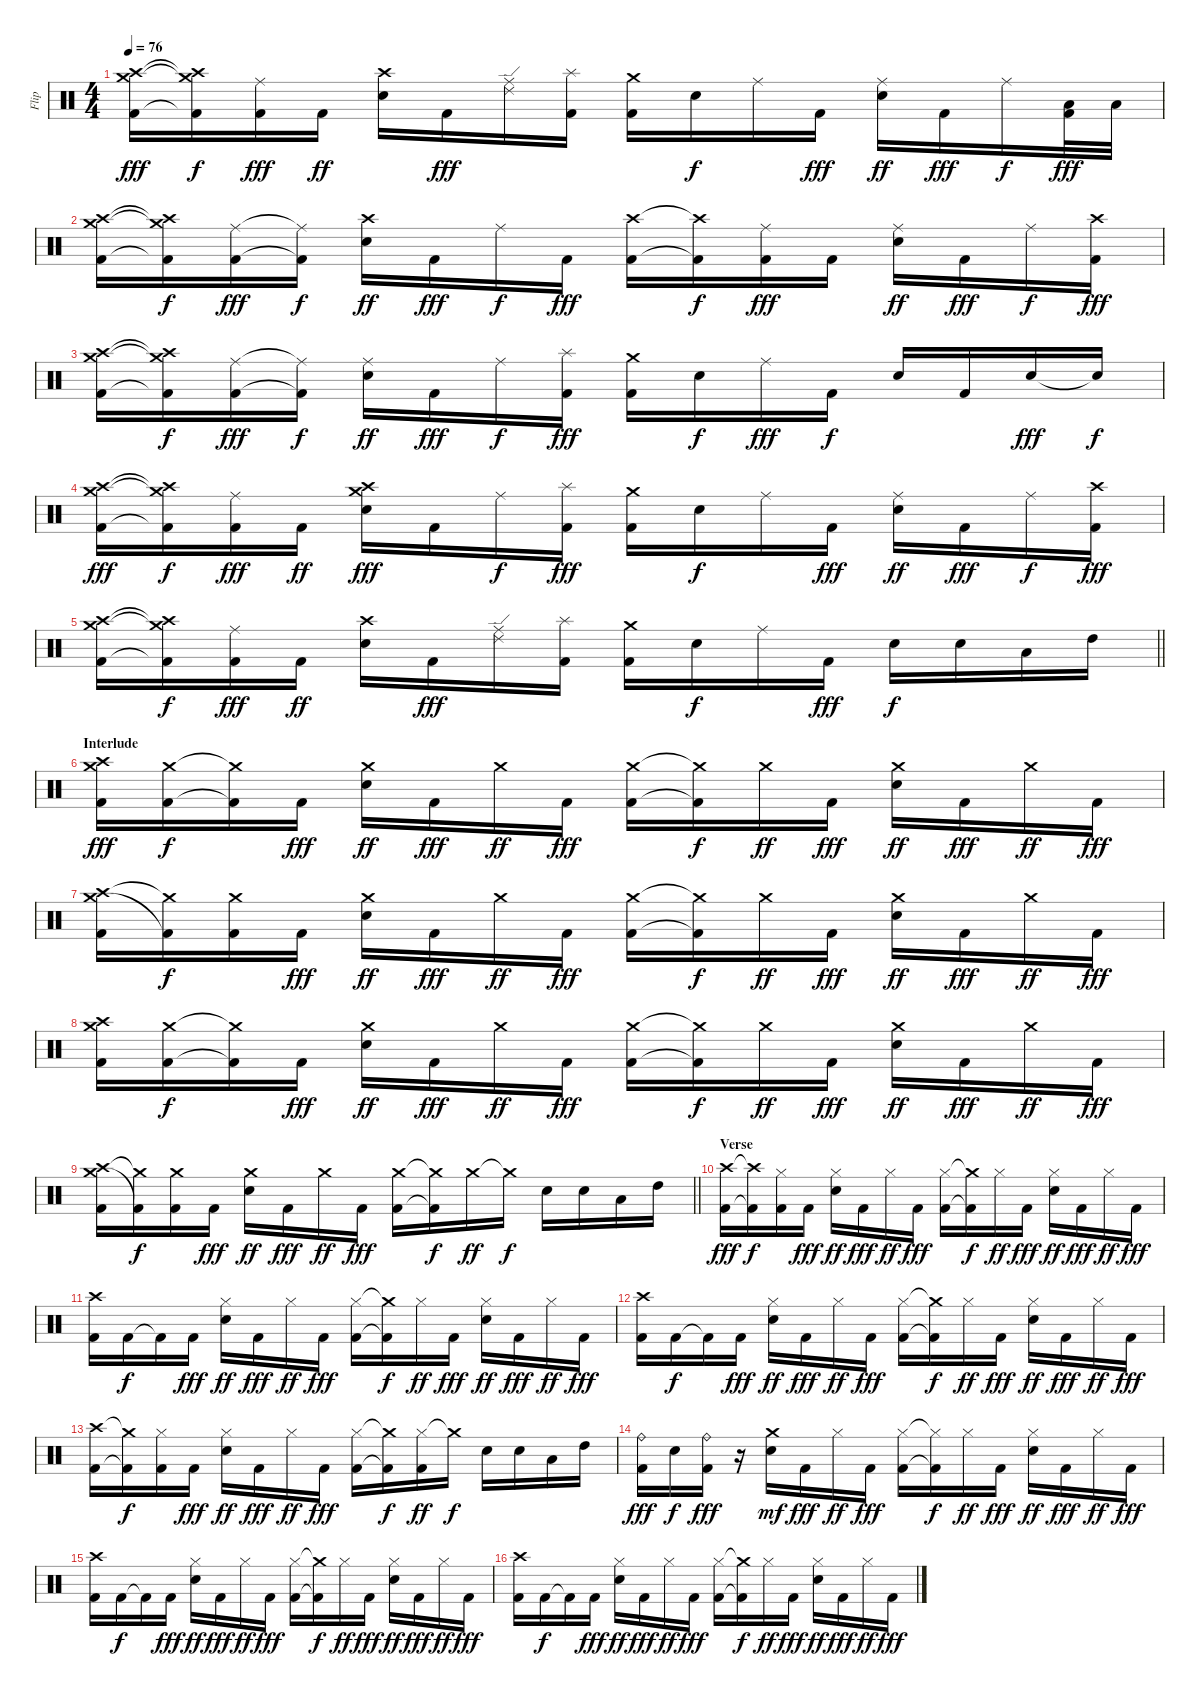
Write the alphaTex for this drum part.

\track ("Flip" "Flip") {instrument percussion}
\staff {score}
\articulation defaults
\ts (4 4)
\tempo 76
\clef neutral
\ks c
("Crash medium (hit)" "Crash high (hit)" "Kick (hit) 2").16{dy fff} ("Crash medium (hit)"{t} "Crash high (hit)"{t} "Kick (hit) 2"{t}).16{dy f} ("Ride (middle)" "Kick (hit) 2").16{dy fff} "Kick (hit) 2".16{dy ff} ("Crash high (hit)" "Snare (hit) 2").16 "Kick (hit) 2".16{dy fff} ("Ride (middle)" "Ride (edge) 2").16 ("Splash (hit)" "Kick (hit) 2").16 ("Crash medium (hit)" "Kick (hit) 2").16 "Snare (hit) 2".16{dy f} "Ride (middle)".16 "Kick (hit) 2".16{dy fff} ("Ride (middle)" "Snare (hit) 2").16{dy ff} "Kick (hit) 2".16{dy fff} "Ride (middle)".16{dy f} ("Low Tom (hit)" "Kick (hit) 2").32{dy fff} "Low Tom (hit)".32 |
("Crash medium (hit)" "Crash high (hit)" "Kick (hit) 2").16 ("Crash medium (hit)"{t} "Crash high (hit)"{t} "Kick (hit) 2"{t}).16{dy f} ("Ride (middle)" "Kick (hit) 2").16{dy fff} ("Ride (middle)"{t} "Kick (hit) 2"{t}).16{dy f} ("Crash high (hit)" "Snare (hit) 2").16{dy ff} "Kick (hit) 2".16{dy fff} "Ride (middle)".16{dy f} "Kick (hit) 2".16{dy fff} ("Crash high (hit)" "Kick (hit) 2").16 ("Crash high (hit)"{t} "Kick (hit) 2"{t}).16{dy f} ("Ride (middle)" "Kick (hit) 2").16{dy fff} "Kick (hit) 2".16 ("Ride (middle)" "Snare (hit) 2").16{dy ff} "Kick (hit) 2".16{dy fff} "Ride (middle)".16{dy f} ("Crash high (hit)" "Kick (hit) 2").16{dy fff} |
("Crash medium (hit)" "Crash high (hit)" "Kick (hit) 2").16 ("Crash medium (hit)"{t} "Crash high (hit)"{t} "Kick (hit) 2"{t}).16{dy f} ("Ride (middle)" "Kick (hit) 2").16{dy fff} ("Ride (middle)"{t} "Kick (hit) 2"{t}).16{dy f} ("Ride (middle)" "Snare (hit) 2").16{dy ff} "Kick (hit) 2".16{dy fff} "Ride (middle)".16{dy f} ("Splash (hit)" "Kick (hit) 2").16{dy fff} ("Crash medium (hit)" "Kick (hit) 2").16 "Snare (hit) 2".16{dy f} "Ride (middle)".16{dy fff} "Kick (hit) 2".16{dy f} "Snare (hit) 2".16 "Kick (hit) 2".16 "Snare (hit) 2".16{dy fff} "Snare (hit) 2"{t}.16{dy f} |
("Crash medium (hit)" "Crash high (hit)" "Kick (hit) 2").16{dy fff} ("Crash medium (hit)"{t} "Crash high (hit)"{t} "Kick (hit) 2"{t}).16{dy f} ("Ride (middle)" "Kick (hit) 2").16{dy fff} "Kick (hit) 2".16{dy ff} ("Crash high (hit)" "Crash medium (hit)" "Snare (hit) 2").16{dy fff} "Kick (hit) 2".16 "Ride (middle)".16{dy f} ("Splash (hit)" "Kick (hit) 2").16{dy fff} ("Crash medium (hit)" "Kick (hit) 2").16 "Snare (hit) 2".16{dy f} "Ride (middle)".16 "Kick (hit) 2".16{dy fff} ("Ride (middle)" "Snare (hit) 2").16{dy ff} "Kick (hit) 2".16{dy fff} "Ride (middle)".16{dy f} ("Crash high (hit)" "Kick (hit) 2").16{dy fff} |
\barLineRight lightlight
("Crash medium (hit)" "Crash high (hit)" "Kick (hit) 2").16 ("Crash medium (hit)"{t} "Crash high (hit)"{t} "Kick (hit) 2"{t}).16{dy f} ("Ride (middle)" "Kick (hit) 2").16{dy fff} "Kick (hit) 2".16{dy ff} ("Crash high (hit)" "Snare (hit) 2").16 "Kick (hit) 2".16{dy fff} ("Ride (middle)" "Ride (edge) 2").16 ("Splash (hit)" "Kick (hit) 2").16 ("Crash medium (hit)" "Kick (hit) 2").16 "Snare (hit) 2".16{dy f} "Ride (middle)".16 "Kick (hit) 2".16{dy fff} "Snare (hit) 2".16{dy f} "Snare (hit) 2".16 "Low Tom (hit)".16 "High Tom (hit)".16 |
\section ("" "Interlude")
("Crash high (hit)" "Crash medium (hit)" "Kick (hit) 2").16{dy fff} ("Crash medium (hit)" "Kick (hit) 2").16{dy f} ("Crash medium (hit)"{t} "Kick (hit) 2"{t}).16 "Kick (hit) 2".16{dy fff} ("Crash medium (hit)" "Snare (hit) 2").16{dy ff} "Kick (hit) 2".16{dy fff} "Crash medium (hit)".16{dy ff} "Kick (hit) 2".16{dy fff} ("Crash medium (hit)" "Kick (hit) 2").16 ("Crash medium (hit)"{t} "Kick (hit) 2"{t}).16{dy f} "Crash medium (hit)".16{dy ff} "Kick (hit) 2".16{dy fff} ("Crash medium (hit)" "Snare (hit) 2").16{dy ff} "Kick (hit) 2".16{dy fff} "Crash medium (hit)".16{dy ff} "Kick (hit) 2".16{dy fff} |
("Crash high (hit)" "Crash medium (hit)" "Kick (hit) 2").16 ("Crash medium (hit)"{t} "Kick (hit) 2"{t}).16{dy f} ("Crash medium (hit)" "Kick (hit) 2").16 "Kick (hit) 2".16{dy fff} ("Crash medium (hit)" "Snare (hit) 2").16{dy ff} "Kick (hit) 2".16{dy fff} "Crash medium (hit)".16{dy ff} "Kick (hit) 2".16{dy fff} ("Crash medium (hit)" "Kick (hit) 2").16 ("Crash medium (hit)"{t} "Kick (hit) 2"{t}).16{dy f} "Crash medium (hit)".16{dy ff} "Kick (hit) 2".16{dy fff} ("Crash medium (hit)" "Snare (hit) 2").16{dy ff} "Kick (hit) 2".16{dy fff} "Crash medium (hit)".16{dy ff} "Kick (hit) 2".16{dy fff} |
("Crash high (hit)" "Crash medium (hit)" "Kick (hit) 2").16 ("Crash medium (hit)" "Kick (hit) 2").16{dy f} ("Crash medium (hit)"{t} "Kick (hit) 2"{t}).16 "Kick (hit) 2".16{dy fff} ("Crash medium (hit)" "Snare (hit) 2").16{dy ff} "Kick (hit) 2".16{dy fff} "Crash medium (hit)".16{dy ff} "Kick (hit) 2".16{dy fff} ("Crash medium (hit)" "Kick (hit) 2").16 ("Crash medium (hit)"{t} "Kick (hit) 2"{t}).16{dy f} "Crash medium (hit)".16{dy ff} "Kick (hit) 2".16{dy fff} ("Crash medium (hit)" "Snare (hit) 2").16{dy ff} "Kick (hit) 2".16{dy fff} "Crash medium (hit)".16{dy ff} "Kick (hit) 2".16{dy fff} |
\barLineRight lightlight
("Crash high (hit)" "Crash medium (hit)" "Kick (hit) 2").16 ("Crash medium (hit)"{t} "Kick (hit) 2"{t}).16{dy f} ("Crash medium (hit)" "Kick (hit) 2").16 "Kick (hit) 2".16{dy fff} ("Crash medium (hit)" "Snare (hit) 2").16{dy ff} "Kick (hit) 2".16{dy fff} "Crash medium (hit)".16{dy ff} "Kick (hit) 2".16{dy fff} ("Crash medium (hit)" "Kick (hit) 2").16 ("Crash medium (hit)"{t} "Kick (hit) 2"{t}).16{dy f} "Crash medium (hit)".16{dy ff} "Crash medium (hit)"{t}.16{dy f} "Snare (hit) 2".16 "Snare (hit) 2".16 "Low Tom (hit)".16 "High Tom (hit)".16 |
\section ("" "Verse")
("Crash high (hit)" "Kick (hit) 2").16{dy fff} ("Crash high (hit)"{t} "Kick (hit) 2"{t}).16{dy f} ("Hi-Hat (closed)" "Kick (hit) 2").16 "Kick (hit) 2".16{dy fff} ("Hi-Hat (closed)" "Snare (hit) 2").16{dy ff} "Kick (hit) 2".16{dy fff} "Hi-Hat (closed)".16{dy ff} "Kick (hit) 2".16{dy fff} ("Hi-Hat (closed)" "Kick (hit) 2").16 ("Crash medium (hit)"{t} "Kick (hit) 2"{t}).16{dy f} "Hi-Hat (closed)".16{dy ff} "Kick (hit) 2".16{dy fff} ("Hi-Hat (closed)" "Snare (hit) 2").16{dy ff} "Kick (hit) 2".16{dy fff} "Hi-Hat (closed)".16{dy ff} "Kick (hit) 2".16{dy fff} |
("Crash high (hit)" "Kick (hit) 2").16 "Kick (hit) 2".16{dy f} "Kick (hit) 2"{t}.16 "Kick (hit) 2".16{dy fff} ("Hi-Hat (closed)" "Snare (hit) 2").16{dy ff} "Kick (hit) 2".16{dy fff} "Hi-Hat (closed)".16{dy ff} "Kick (hit) 2".16{dy fff} ("Hi-Hat (closed)" "Kick (hit) 2").16 ("Crash medium (hit)"{t} "Kick (hit) 2"{t}).16{dy f} "Hi-Hat (closed)".16{dy ff} "Kick (hit) 2".16{dy fff} ("Hi-Hat (closed)" "Snare (hit) 2").16{dy ff} "Kick (hit) 2".16{dy fff} "Hi-Hat (closed)".16{dy ff} "Kick (hit) 2".16{dy fff} |
("Crash high (hit)" "Kick (hit) 2").16 "Kick (hit) 2".16{dy f} "Kick (hit) 2"{t}.16 "Kick (hit) 2".16{dy fff} ("Hi-Hat (closed)" "Snare (hit) 2").16{dy ff} "Kick (hit) 2".16{dy fff} "Hi-Hat (closed)".16{dy ff} "Kick (hit) 2".16{dy fff} ("Hi-Hat (closed)" "Kick (hit) 2").16 ("Crash medium (hit)"{t} "Kick (hit) 2"{t}).16{dy f} "Hi-Hat (closed)".16{dy ff} "Kick (hit) 2".16{dy fff} ("Hi-Hat (closed)" "Snare (hit) 2").16{dy ff} "Kick (hit) 2".16{dy fff} "Hi-Hat (closed)".16{dy ff} "Kick (hit) 2".16{dy fff} |
("Crash high (hit)" "Kick (hit) 2").16 ("Crash medium (hit)"{t} "Kick (hit) 2"{t}).16{dy f} ("Hi-Hat (closed)" "Kick (hit) 2").16 "Kick (hit) 2".16{dy fff} ("Hi-Hat (closed)" "Snare (hit) 2").16{dy ff} "Kick (hit) 2".16{dy fff} "Hi-Hat (closed)".16{dy ff} "Kick (hit) 2".16{dy fff} ("Hi-Hat (closed)" "Kick (hit) 2").16 ("Crash medium (hit)"{t} "Kick (hit) 2"{t}).16{dy f} ("Hi-Hat (closed)" "Kick (hit) 2").16{dy ff} "Crash medium (hit)"{t}.16{dy f} "Snare (hit) 2".16 "Snare (hit) 2".16 "Low Tom (hit)".16 "High Tom (hit)".16 |
("Ride (bell)" "Kick (hit) 2").16{dy fff} "Snare (hit) 2".16{dy f} ("Ride (bell)" "Kick (hit) 2").16{dy fff} r.16 ("Crash medium (hit)" "Snare (hit) 2").16{dy mf} "Kick (hit) 2".16{dy fff} "Hi-Hat (closed)".16{dy ff} "Kick (hit) 2".16{dy fff} ("Hi-Hat (closed)" "Kick (hit) 2").16 ("Hi-Hat (closed)"{t} "Kick (hit) 2"{t}).16{dy f} "Hi-Hat (closed)".16{dy ff} "Kick (hit) 2".16{dy fff} ("Hi-Hat (closed)" "Snare (hit) 2").16{dy ff} "Kick (hit) 2".16{dy fff} "Hi-Hat (closed)".16{dy ff} "Kick (hit) 2".16{dy fff} |
("Crash high (hit)" "Kick (hit) 2").16 "Kick (hit) 2".16{dy f} "Kick (hit) 2"{t}.16 "Kick (hit) 2".16{dy fff} ("Hi-Hat (closed)" "Snare (hit) 2").16{dy ff} "Kick (hit) 2".16{dy fff} "Hi-Hat (closed)".16{dy ff} "Kick (hit) 2".16{dy fff} ("Hi-Hat (closed)" "Kick (hit) 2").16 ("Crash medium (hit)"{t} "Kick (hit) 2"{t}).16{dy f} "Hi-Hat (closed)".16{dy ff} "Kick (hit) 2".16{dy fff} ("Hi-Hat (closed)" "Snare (hit) 2").16{dy ff} "Kick (hit) 2".16{dy fff} "Hi-Hat (closed)".16{dy ff} "Kick (hit) 2".16{dy fff} |
("Crash high (hit)" "Kick (hit) 2").16 "Kick (hit) 2".16{dy f} "Kick (hit) 2"{t}.16 "Kick (hit) 2".16{dy fff} ("Hi-Hat (closed)" "Snare (hit) 2").16{dy ff} "Kick (hit) 2".16{dy fff} "Hi-Hat (closed)".16{dy ff} "Kick (hit) 2".16{dy fff} ("Hi-Hat (closed)" "Kick (hit) 2").16 ("Crash medium (hit)"{t} "Kick (hit) 2"{t}).16{dy f} "Hi-Hat (closed)".16{dy ff} "Kick (hit) 2".16{dy fff} ("Hi-Hat (closed)" "Snare (hit) 2").16{dy ff} "Kick (hit) 2".16{dy fff} "Hi-Hat (closed)".16{dy ff} "Kick (hit) 2".16{dy fff}
